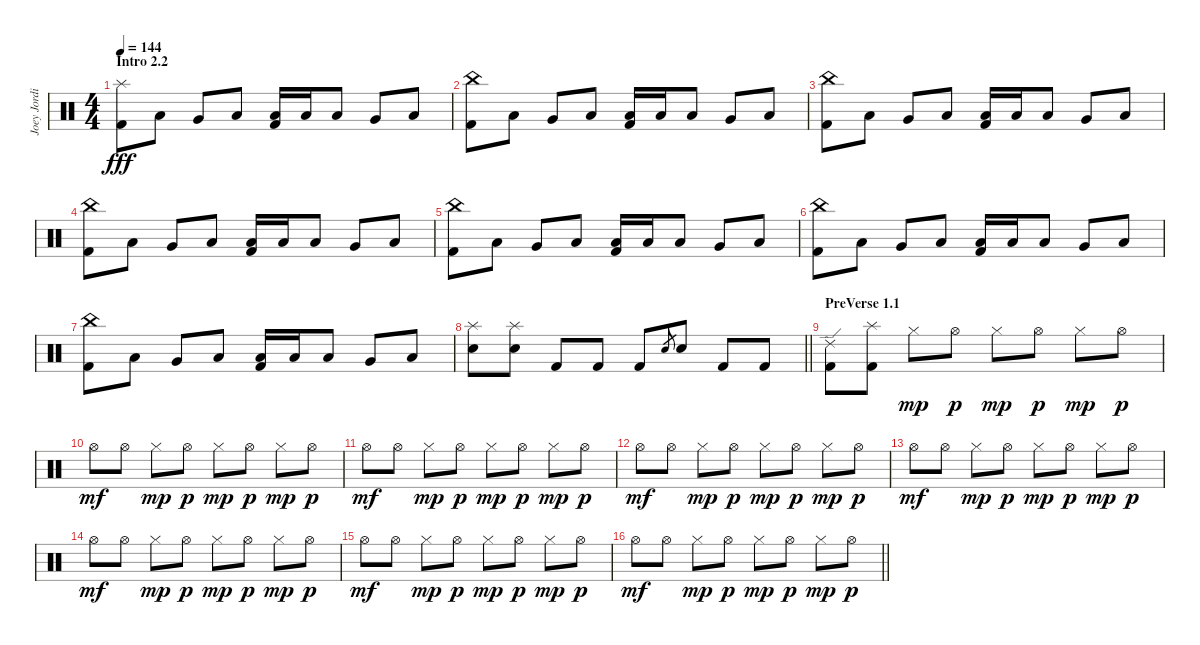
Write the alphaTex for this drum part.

\track ("Joey Jordison" "Joey Jordi") {instrument percussion}
\staff {score}
\articulation defaults
\ts (4 4)
\section ("" "Intro 2.2")
\tempo 144
\clef neutral
\ks c
("Splash (hit)" "Kick (hit) 2").8{dy fff} "Low Tom (hit)".8 "Very Low Tom (hit)".8 "Low Floor Tom (hit)".8 ("Low Tom (hit)" "Kick (hit) 2").16 "Low Tom (hit)".16 "Low Tom (hit)".8 "Very Low Tom (hit)".8 "Low Floor Tom (hit)".8 |
("China (hit)" "Kick (hit) 2").8 "Low Tom (hit)".8 "Very Low Tom (hit)".8 "Low Floor Tom (hit)".8 ("Low Tom (hit)" "Kick (hit) 2").16 "Low Tom (hit)".16 "Low Tom (hit)".8 "Very Low Tom (hit)".8 "Low Floor Tom (hit)".8 |
("China (hit)" "Kick (hit) 2").8 "Low Tom (hit)".8 "Very Low Tom (hit)".8 "Low Floor Tom (hit)".8 ("Low Tom (hit)" "Kick (hit) 2").16 "Low Tom (hit)".16 "Low Tom (hit)".8 "Very Low Tom (hit)".8 "Low Floor Tom (hit)".8 |
("China (hit)" "Kick (hit) 2").8 "Low Tom (hit)".8 "Very Low Tom (hit)".8 "Low Floor Tom (hit)".8 ("Low Tom (hit)" "Kick (hit) 2").16 "Low Tom (hit)".16 "Low Tom (hit)".8 "Very Low Tom (hit)".8 "Low Floor Tom (hit)".8 |
("China (hit)" "Kick (hit) 2").8 "Low Tom (hit)".8 "Very Low Tom (hit)".8 "Low Floor Tom (hit)".8 ("Low Tom (hit)" "Kick (hit) 2").16 "Low Tom (hit)".16 "Low Tom (hit)".8 "Very Low Tom (hit)".8 "Low Floor Tom (hit)".8 |
("China (hit)" "Kick (hit) 2").8 "Low Tom (hit)".8 "Very Low Tom (hit)".8 "Low Floor Tom (hit)".8 ("Low Tom (hit)" "Kick (hit) 2").16 "Low Tom (hit)".16 "Low Tom (hit)".8 "Very Low Tom (hit)".8 "Low Floor Tom (hit)".8 |
("China (hit)" "Kick (hit) 2").8 "Low Tom (hit)".8 "Very Low Tom (hit)".8 "Low Floor Tom (hit)".8 ("Low Tom (hit)" "Kick (hit) 2").16 "Low Tom (hit)".16 "Low Tom (hit)".8 "Very Low Tom (hit)".8 "Low Floor Tom (hit)".8 |
\barLineRight lightlight
("Splash (hit)" "Electric Snare (hit)").8 ("Splash (hit)" "Electric Snare (hit)").8 "Kick (hit) 2".8 "Kick (hit) 2".8 "Kick (hit) 2".8 "Electric Snare (hit)".8{gr} "Electric Snare (hit)".8 "Kick (hit) 2".8 "Kick (hit) 2".8 |
\section ("" "PreVerse 1.1")
("Ride (edge) 2" "Kick (hit) 2").8 ("Splash (hit)" "Kick (hit) 2").8 "Hi-Hat (closed)".8{dy mp} "Hi-Hat (open)".8{dy p} "Hi-Hat (closed)".8{dy mp} "Hi-Hat (open)".8{dy p} "Hi-Hat (closed)".8{dy mp} "Hi-Hat (open)".8{dy p} |
"Hi-Hat (open)".8{dy mf} "Hi-Hat (open)".8 "Hi-Hat (closed)".8{dy mp} "Hi-Hat (open)".8{dy p} "Hi-Hat (closed)".8{dy mp} "Hi-Hat (open)".8{dy p} "Hi-Hat (closed)".8{dy mp} "Hi-Hat (open)".8{dy p} |
"Hi-Hat (open)".8{dy mf} "Hi-Hat (open)".8 "Hi-Hat (closed)".8{dy mp} "Hi-Hat (open)".8{dy p} "Hi-Hat (closed)".8{dy mp} "Hi-Hat (open)".8{dy p} "Hi-Hat (closed)".8{dy mp} "Hi-Hat (open)".8{dy p} |
"Hi-Hat (open)".8{dy mf} "Hi-Hat (open)".8 "Hi-Hat (closed)".8{dy mp} "Hi-Hat (open)".8{dy p} "Hi-Hat (closed)".8{dy mp} "Hi-Hat (open)".8{dy p} "Hi-Hat (closed)".8{dy mp} "Hi-Hat (open)".8{dy p} |
"Hi-Hat (open)".8{dy mf} "Hi-Hat (open)".8 "Hi-Hat (closed)".8{dy mp} "Hi-Hat (open)".8{dy p} "Hi-Hat (closed)".8{dy mp} "Hi-Hat (open)".8{dy p} "Hi-Hat (closed)".8{dy mp} "Hi-Hat (open)".8{dy p} |
"Hi-Hat (open)".8{dy mf} "Hi-Hat (open)".8 "Hi-Hat (closed)".8{dy mp} "Hi-Hat (open)".8{dy p} "Hi-Hat (closed)".8{dy mp} "Hi-Hat (open)".8{dy p} "Hi-Hat (closed)".8{dy mp} "Hi-Hat (open)".8{dy p} |
"Hi-Hat (open)".8{dy mf} "Hi-Hat (open)".8 "Hi-Hat (closed)".8{dy mp} "Hi-Hat (open)".8{dy p} "Hi-Hat (closed)".8{dy mp} "Hi-Hat (open)".8{dy p} "Hi-Hat (closed)".8{dy mp} "Hi-Hat (open)".8{dy p} |
\barLineRight lightlight "Hi-Hat (open)".8{dy mf} "Hi-Hat (open)".8 "Hi-Hat (closed)".8{dy mp} "Hi-Hat (open)".8{dy p} "Hi-Hat (closed)".8{dy mp} "Hi-Hat (open)".8{dy p} "Hi-Hat (closed)".8{dy mp} "Hi-Hat (open)".8{dy p}
